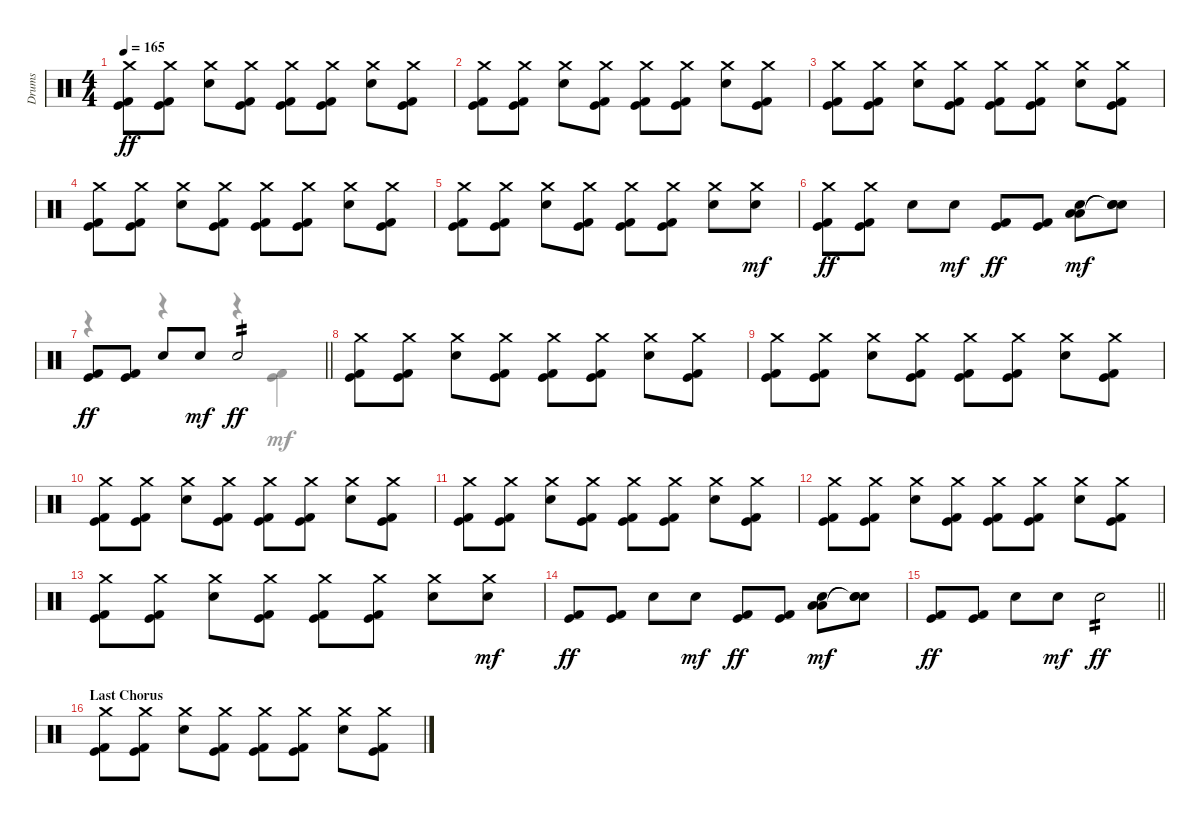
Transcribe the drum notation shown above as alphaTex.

\track ("Drums" "Drums") {instrument percussion}
\staff
\articulation defaults
\voice
\ts (4 4)
\tempo 165
\clef neutral
\ks c
("Crash medium (hit)" "Kick (hit) 2" "Kick (hit)").8{dy ff} ("Crash medium (hit)" "Kick (hit) 2" "Kick (hit)").8 ("Crash medium (hit)" "Electric Snare (hit)").8 ("Crash medium (hit)" "Kick (hit) 2" "Kick (hit)").8 ("Crash medium (hit)" "Kick (hit) 2" "Kick (hit)").8 ("Crash medium (hit)" "Kick (hit) 2" "Kick (hit)").8 ("Crash medium (hit)" "Electric Snare (hit)").8 ("Crash medium (hit)" "Kick (hit) 2" "Kick (hit)").8 |
("Crash medium (hit)" "Kick (hit) 2" "Kick (hit)").8 ("Crash medium (hit)" "Kick (hit) 2" "Kick (hit)").8 ("Crash medium (hit)" "Electric Snare (hit)").8 ("Crash medium (hit)" "Kick (hit) 2" "Kick (hit)").8 ("Crash medium (hit)" "Kick (hit) 2" "Kick (hit)").8 ("Crash medium (hit)" "Kick (hit) 2" "Kick (hit)").8 ("Crash medium (hit)" "Electric Snare (hit)").8 ("Crash medium (hit)" "Kick (hit) 2" "Kick (hit)").8 |
("Crash medium (hit)" "Kick (hit) 2" "Kick (hit)").8 ("Crash medium (hit)" "Kick (hit) 2" "Kick (hit)").8 ("Crash medium (hit)" "Electric Snare (hit)").8 ("Crash medium (hit)" "Kick (hit) 2" "Kick (hit)").8 ("Crash medium (hit)" "Kick (hit) 2" "Kick (hit)").8 ("Crash medium (hit)" "Kick (hit) 2" "Kick (hit)").8 ("Crash medium (hit)" "Electric Snare (hit)").8 ("Crash medium (hit)" "Kick (hit) 2" "Kick (hit)").8 |
("Crash medium (hit)" "Kick (hit) 2" "Kick (hit)").8 ("Crash medium (hit)" "Kick (hit) 2" "Kick (hit)").8 ("Crash medium (hit)" "Electric Snare (hit)").8 ("Crash medium (hit)" "Kick (hit) 2" "Kick (hit)").8 ("Crash medium (hit)" "Kick (hit) 2" "Kick (hit)").8 ("Crash medium (hit)" "Kick (hit) 2" "Kick (hit)").8 ("Crash medium (hit)" "Electric Snare (hit)").8 ("Crash medium (hit)" "Kick (hit) 2" "Kick (hit)").8 |
("Crash medium (hit)" "Kick (hit) 2" "Kick (hit)").8 ("Crash medium (hit)" "Kick (hit) 2" "Kick (hit)").8 ("Crash medium (hit)" "Electric Snare (hit)").8 ("Crash medium (hit)" "Kick (hit) 2" "Kick (hit)").8 ("Crash medium (hit)" "Kick (hit) 2" "Kick (hit)").8 ("Crash medium (hit)" "Kick (hit) 2" "Kick (hit)").8 ("Crash medium (hit)" "Electric Snare (hit)").8 ("Crash medium (hit)" "Electric Snare (hit)").8{dy mf} |
("Crash medium (hit)" "Kick (hit) 2" "Kick (hit)").8{dy ff} ("Crash medium (hit)" "Kick (hit) 2" "Kick (hit)").8 "Electric Snare (hit)".8 "Electric Snare (hit)".8{dy mf} ("Kick (hit) 2" "Kick (hit)").8{dy ff} ("Kick (hit) 2" "Kick (hit)").8 ("Electric Snare (hit)" "Low Tom (hit)" "Low Floor Tom (hit)").8{dy mf} ("Electric Snare (hit)" "Snare (hit)"{t} "Snare (hit)"{t}).8 |
\barLineRight lightlight
("Kick (hit) 2" "Kick (hit)").8{dy ff} ("Kick (hit) 2" "Kick (hit)").8 "Electric Snare (hit)".8 "Electric Snare (hit)".8{dy mf} "Electric Snare (hit)".2{tp 2 dy ff} |
("Crash medium (hit)" "Kick (hit) 2" "Kick (hit)").8 ("Crash medium (hit)" "Kick (hit) 2" "Kick (hit)").8 ("Crash medium (hit)" "Electric Snare (hit)").8 ("Crash medium (hit)" "Kick (hit) 2" "Kick (hit)").8 ("Crash medium (hit)" "Kick (hit) 2" "Kick (hit)").8 ("Crash medium (hit)" "Kick (hit) 2" "Kick (hit)").8 ("Crash medium (hit)" "Electric Snare (hit)").8 ("Crash medium (hit)" "Kick (hit) 2" "Kick (hit)").8 |
("Crash medium (hit)" "Kick (hit) 2" "Kick (hit)").8 ("Crash medium (hit)" "Kick (hit) 2" "Kick (hit)").8 ("Crash medium (hit)" "Electric Snare (hit)").8 ("Crash medium (hit)" "Kick (hit) 2" "Kick (hit)").8 ("Crash medium (hit)" "Kick (hit) 2" "Kick (hit)").8 ("Crash medium (hit)" "Kick (hit) 2" "Kick (hit)").8 ("Crash medium (hit)" "Electric Snare (hit)").8 ("Crash medium (hit)" "Kick (hit) 2" "Kick (hit)").8 |
("Crash medium (hit)" "Kick (hit) 2" "Kick (hit)").8 ("Crash medium (hit)" "Kick (hit) 2" "Kick (hit)").8 ("Crash medium (hit)" "Electric Snare (hit)").8 ("Crash medium (hit)" "Kick (hit) 2" "Kick (hit)").8 ("Crash medium (hit)" "Kick (hit) 2" "Kick (hit)").8 ("Crash medium (hit)" "Kick (hit) 2" "Kick (hit)").8 ("Crash medium (hit)" "Electric Snare (hit)").8 ("Crash medium (hit)" "Kick (hit) 2" "Kick (hit)").8 |
("Crash medium (hit)" "Kick (hit) 2" "Kick (hit)").8 ("Crash medium (hit)" "Kick (hit) 2" "Kick (hit)").8 ("Crash medium (hit)" "Electric Snare (hit)").8 ("Crash medium (hit)" "Kick (hit) 2" "Kick (hit)").8 ("Crash medium (hit)" "Kick (hit) 2" "Kick (hit)").8 ("Crash medium (hit)" "Kick (hit) 2" "Kick (hit)").8 ("Crash medium (hit)" "Electric Snare (hit)").8 ("Crash medium (hit)" "Kick (hit) 2" "Kick (hit)").8 |
("Crash medium (hit)" "Kick (hit) 2" "Kick (hit)").8 ("Crash medium (hit)" "Kick (hit) 2" "Kick (hit)").8 ("Crash medium (hit)" "Electric Snare (hit)").8 ("Crash medium (hit)" "Kick (hit) 2" "Kick (hit)").8 ("Crash medium (hit)" "Kick (hit) 2" "Kick (hit)").8 ("Crash medium (hit)" "Kick (hit) 2" "Kick (hit)").8 ("Crash medium (hit)" "Electric Snare (hit)").8 ("Crash medium (hit)" "Kick (hit) 2" "Kick (hit)").8 |
("Crash medium (hit)" "Kick (hit) 2" "Kick (hit)").8 ("Crash medium (hit)" "Kick (hit) 2" "Kick (hit)").8 ("Crash medium (hit)" "Electric Snare (hit)").8 ("Crash medium (hit)" "Kick (hit) 2" "Kick (hit)").8 ("Crash medium (hit)" "Kick (hit) 2" "Kick (hit)").8 ("Crash medium (hit)" "Kick (hit) 2" "Kick (hit)").8 ("Crash medium (hit)" "Electric Snare (hit)").8 ("Crash medium (hit)" "Electric Snare (hit)").8{dy mf} |
("Kick (hit) 2" "Kick (hit)").8{dy ff} ("Kick (hit) 2" "Kick (hit)").8 "Electric Snare (hit)".8 "Electric Snare (hit)".8{dy mf} ("Kick (hit) 2" "Kick (hit)").8{dy ff} ("Kick (hit) 2" "Kick (hit)").8 ("Electric Snare (hit)" "Low Tom (hit)" "Low Floor Tom (hit)").8{dy mf} ("Electric Snare (hit)" "Snare (hit)"{t} "Snare (hit)"{t}).8 |
\barLineRight lightlight
("Kick (hit) 2" "Kick (hit)").8{dy ff} ("Kick (hit) 2" "Kick (hit)").8 "Electric Snare (hit)".8 "Electric Snare (hit)".8{dy mf} "Electric Snare (hit)".2{tp 2 dy ff} |
\section ("" "Last Chorus")
("Crash medium (hit)" "Kick (hit) 2" "Kick (hit)").8 ("Crash medium (hit)" "Kick (hit) 2" "Kick (hit)").8 ("Crash medium (hit)" "Electric Snare (hit)").8 ("Crash medium (hit)" "Kick (hit) 2" "Kick (hit)").8 ("Crash medium (hit)" "Kick (hit) 2" "Kick (hit)").8 ("Crash medium (hit)" "Kick (hit) 2" "Kick (hit)").8 ("Crash medium (hit)" "Electric Snare (hit)").8 ("Crash medium (hit)" "Kick (hit) 2" "Kick (hit)").8
\voice
\clef neutral
\ottava regular
\simile none
\ks c
|
|
|
|
|
|
\barLineRight lightlight
r.4 r.4 r.4 ("Kick (hit)" "Kick (hit) 2").4{dy mf} |
|
|
|
|
|
|
|
\barLineRight lightlight
|
